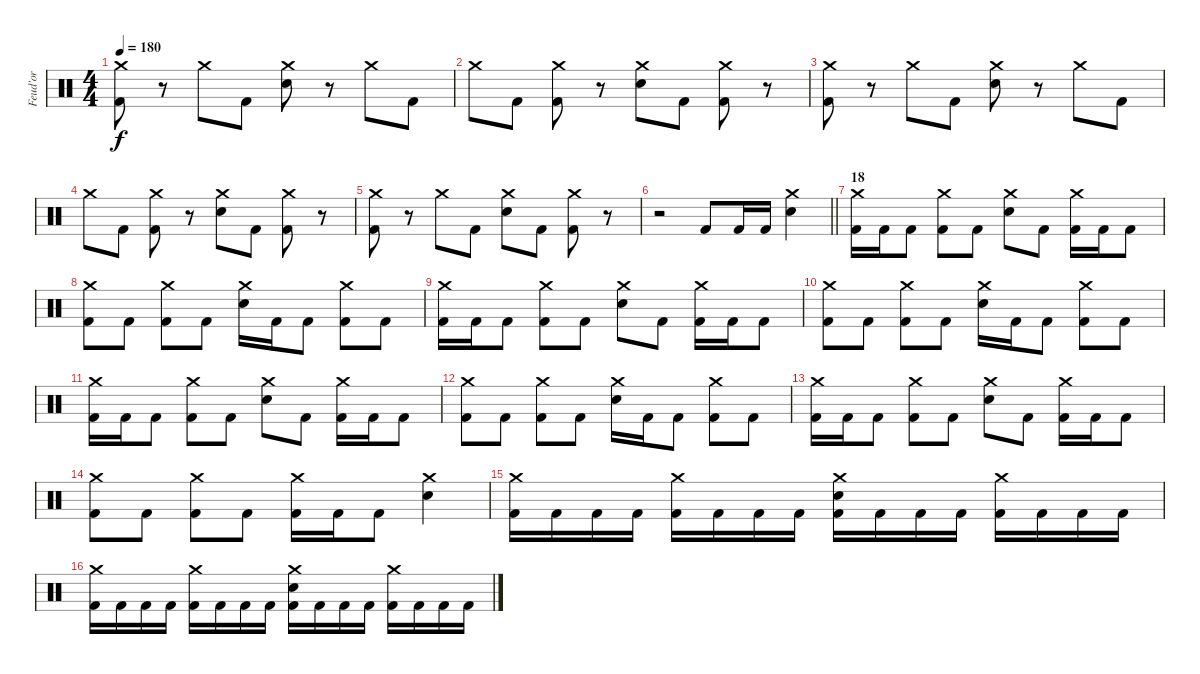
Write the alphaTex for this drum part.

\track ("Feud'or" "Feud'or") {instrument percussion}
\staff {score}
\articulation defaults
\ts (4 4)
\tempo 180
\clef neutral
\ks c
("Crash medium (hit)" "Kick (hit) 2").8{dy f} r.8 "Crash medium (hit)".8 "Kick (hit) 2".8 ("Crash medium (hit)" "Snare (hit) 2").8 r.8 "Crash medium (hit)".8 "Kick (hit) 2".8 |
"Crash medium (hit)".8 "Kick (hit) 2".8 ("Crash medium (hit)" "Kick (hit) 2").8 r.8 ("Crash medium (hit)" "Snare (hit) 2").8 "Kick (hit) 2".8 ("Crash medium (hit)" "Kick (hit) 2").8 r.8 |
("Crash medium (hit)" "Kick (hit) 2").8 r.8 "Crash medium (hit)".8 "Kick (hit) 2".8 ("Crash medium (hit)" "Snare (hit) 2").8 r.8 "Crash medium (hit)".8 "Kick (hit) 2".8 |
"Crash medium (hit)".8 "Kick (hit) 2".8 ("Crash medium (hit)" "Kick (hit) 2").8 r.8 ("Crash medium (hit)" "Snare (hit) 2").8 "Kick (hit) 2".8 ("Crash medium (hit)" "Kick (hit) 2").8 r.8 |
("Crash medium (hit)" "Kick (hit) 2").8 r.8 "Crash medium (hit)".8 "Kick (hit) 2".8 ("Crash medium (hit)" "Snare (hit) 2").8 "Kick (hit) 2".8 ("Crash medium (hit)" "Kick (hit) 2").8 r.8 |
\barLineRight lightlight
r.2 "Kick (hit) 2".8 "Kick (hit) 2".16 "Kick (hit) 2".16 ("Crash medium (hit)" "Snare (hit) 2").4 |
\section ("" "18")
("Crash medium (hit)" "Kick (hit) 2").16 "Kick (hit) 2".16 "Kick (hit) 2".8 ("Crash medium (hit)" "Kick (hit) 2").8 "Kick (hit) 2".8 ("Crash medium (hit)" "Snare (hit) 2").8 "Kick (hit) 2".8 ("Crash medium (hit)" "Kick (hit) 2").16 "Kick (hit) 2".16 "Kick (hit) 2".8 |
("Crash medium (hit)" "Kick (hit) 2").8 "Kick (hit) 2".8 ("Crash medium (hit)" "Kick (hit) 2").8 "Kick (hit) 2".8 ("Crash medium (hit)" "Snare (hit) 2").16 "Kick (hit) 2".16 "Kick (hit) 2".8 ("Crash medium (hit)" "Kick (hit) 2").8 "Kick (hit) 2".8 |
("Crash medium (hit)" "Kick (hit) 2").16 "Kick (hit) 2".16 "Kick (hit) 2".8 ("Crash medium (hit)" "Kick (hit) 2").8 "Kick (hit) 2".8 ("Crash medium (hit)" "Snare (hit) 2").8 "Kick (hit) 2".8 ("Crash medium (hit)" "Kick (hit) 2").16 "Kick (hit) 2".16 "Kick (hit) 2".8 |
("Crash medium (hit)" "Kick (hit) 2").8 "Kick (hit) 2".8 ("Crash medium (hit)" "Kick (hit) 2").8 "Kick (hit) 2".8 ("Crash medium (hit)" "Snare (hit) 2").16 "Kick (hit) 2".16 "Kick (hit) 2".8 ("Crash medium (hit)" "Kick (hit) 2").8 "Kick (hit) 2".8 |
("Crash medium (hit)" "Kick (hit) 2").16 "Kick (hit) 2".16 "Kick (hit) 2".8 ("Crash medium (hit)" "Kick (hit) 2").8 "Kick (hit) 2".8 ("Crash medium (hit)" "Snare (hit) 2").8 "Kick (hit) 2".8 ("Crash medium (hit)" "Kick (hit) 2").16 "Kick (hit) 2".16 "Kick (hit) 2".8 |
("Crash medium (hit)" "Kick (hit) 2").8 "Kick (hit) 2".8 ("Crash medium (hit)" "Kick (hit) 2").8 "Kick (hit) 2".8 ("Crash medium (hit)" "Snare (hit) 2").16 "Kick (hit) 2".16 "Kick (hit) 2".8 ("Crash medium (hit)" "Kick (hit) 2").8 "Kick (hit) 2".8 |
("Crash medium (hit)" "Kick (hit) 2").16 "Kick (hit) 2".16 "Kick (hit) 2".8 ("Crash medium (hit)" "Kick (hit) 2").8 "Kick (hit) 2".8 ("Crash medium (hit)" "Snare (hit) 2").8 "Kick (hit) 2".8 ("Crash medium (hit)" "Kick (hit) 2").16 "Kick (hit) 2".16 "Kick (hit) 2".8 |
("Crash medium (hit)" "Kick (hit) 2").8 "Kick (hit) 2".8 ("Crash medium (hit)" "Kick (hit) 2").8 "Kick (hit) 2".8 ("Crash medium (hit)" "Kick (hit) 2").16 "Kick (hit) 2".16 "Kick (hit) 2".8 ("Crash medium (hit)" "Snare (hit) 2").4 |
("Crash medium (hit)" "Kick (hit) 2").16 "Kick (hit) 2".16 "Kick (hit) 2".16 "Kick (hit) 2".16 ("Crash medium (hit)" "Kick (hit) 2").16 "Kick (hit) 2".16 "Kick (hit) 2".16 "Kick (hit) 2".16 ("Crash medium (hit)" "Snare (hit) 2" "Kick (hit) 2").16 "Kick (hit) 2".16 "Kick (hit) 2".16 "Kick (hit) 2".16 ("Crash medium (hit)" "Kick (hit) 2").16 "Kick (hit) 2".16 "Kick (hit) 2".16 "Kick (hit) 2".16 |
("Crash medium (hit)" "Kick (hit) 2").16 "Kick (hit) 2".16 "Kick (hit) 2".16 "Kick (hit) 2".16 ("Crash medium (hit)" "Kick (hit) 2").16 "Kick (hit) 2".16 "Kick (hit) 2".16 "Kick (hit) 2".16 ("Crash medium (hit)" "Snare (hit) 2" "Kick (hit) 2").16 "Kick (hit) 2".16 "Kick (hit) 2".16 "Kick (hit) 2".16 ("Crash medium (hit)" "Kick (hit) 2").16 "Kick (hit) 2".16 "Kick (hit) 2".16 "Kick (hit) 2".16
